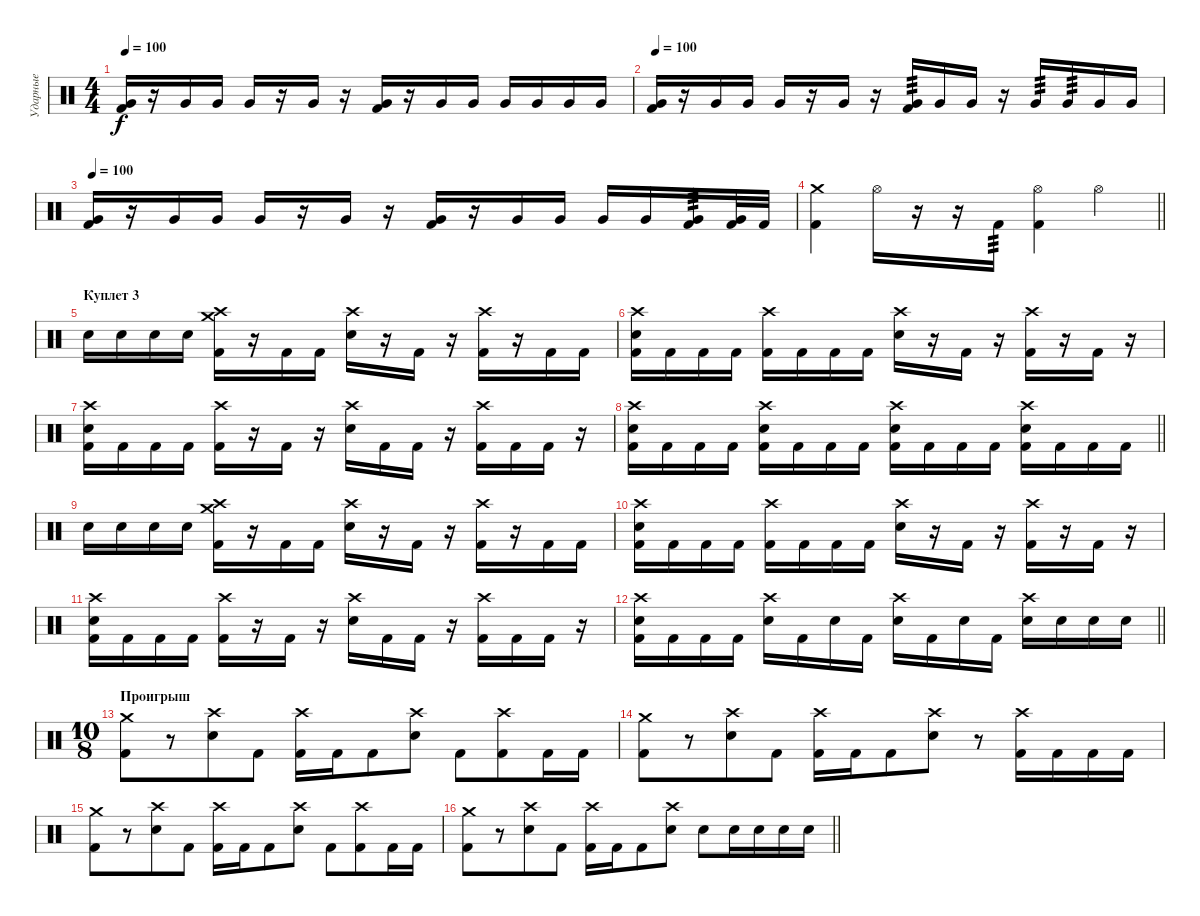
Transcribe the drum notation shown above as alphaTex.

\track ("Ударные" "Ударные") {instrument percussion}
\staff {score}
\articulation defaults
\ts (4 4)
\tempo 100
\clef neutral
\ks c
("Very Low Tom (hit)" "Kick (hit) 2").16{dy f volume 16} r.16 "Very Low Tom (hit)".16 "Very Low Tom (hit)".16 "Very Low Tom (hit)".16 r.16 "Very Low Tom (hit)".16 r.16 ("Very Low Tom (hit)" "Kick (hit) 2").16 r.16 "Very Low Tom (hit)".16 "Very Low Tom (hit)".16 "Very Low Tom (hit)".16 "Very Low Tom (hit)".16 "Very Low Tom (hit)".16 "Very Low Tom (hit)".16 |
\tempo 100
("Very Low Tom (hit)" "Kick (hit) 2").16{volume 16} r.16 "Very Low Tom (hit)".16 "Very Low Tom (hit)".16 "Very Low Tom (hit)".16 r.16 "Very Low Tom (hit)".16 r.16 ("Very Low Tom (hit)" "Kick (hit) 2").16{tp 3} "Very Low Tom (hit)".16 "Very Low Tom (hit)".16 r.16 "Very Low Tom (hit)".16{tp 3} "Very Low Tom (hit)".16{tp 3} "Very Low Tom (hit)".16 "Very Low Tom (hit)".16 |
\tempo 100
("Very Low Tom (hit)" "Kick (hit) 2").16{volume 16} r.16 "Very Low Tom (hit)".16 "Very Low Tom (hit)".16 "Very Low Tom (hit)".16 r.16 "Very Low Tom (hit)".16 r.16 ("Very Low Tom (hit)" "Kick (hit) 2").16 r.16 "Very Low Tom (hit)".16 "Very Low Tom (hit)".16 "Very Low Tom (hit)".16 "Very Low Tom (hit)".16 ("Very Low Tom (hit)" "Kick (hit) 2").16{tp 3} ("Very Low Tom (hit)" "Kick (hit) 2").32 "Kick (hit) 2".32 |
\barLineRight lightlight
("Crash medium (hit)" "Kick (hit) 2").4 "Hi-Hat (open)".16 r.16 r.16 "Kick (hit) 2".16{tp 3} ("Hi-Hat (open)" "Kick (hit) 2").4 "Hi-Hat (open)".4 |
\section ("" "Куплет 3")
"Electric Snare (hit)".16 "Electric Snare (hit)".16 "Electric Snare (hit)".16 "Electric Snare (hit)".16 ("Crash medium (hit)" "Crash high (hit)" "Kick (hit) 2").16 r.16 "Kick (hit) 2".16 "Kick (hit) 2".16 ("Crash high (hit)" "Electric Snare (hit)").16 r.16 "Kick (hit) 2".16 r.16 ("Crash high (hit)" "Kick (hit) 2").16 r.16 "Kick (hit) 2".16 "Kick (hit) 2".16 |
("Crash high (hit)" "Electric Snare (hit)" "Kick (hit) 2").16 "Kick (hit) 2".16 "Kick (hit) 2".16 "Kick (hit) 2".16 ("Crash high (hit)" "Kick (hit) 2").16 "Kick (hit) 2".16 "Kick (hit) 2".16 "Kick (hit) 2".16 ("Crash high (hit)" "Electric Snare (hit)").16 r.16 "Kick (hit) 2".16 r.16 ("Crash high (hit)" "Kick (hit) 2").16 r.16 "Kick (hit) 2".16 r.16 |
("Crash high (hit)" "Electric Snare (hit)" "Kick (hit) 2").16 "Kick (hit) 2".16 "Kick (hit) 2".16 "Kick (hit) 2".16 ("Crash high (hit)" "Kick (hit) 2").16 r.16 "Kick (hit) 2".16 r.16 ("Crash high (hit)" "Electric Snare (hit)").16 "Kick (hit) 2".16 "Kick (hit) 2".16 r.16 ("Crash high (hit)" "Kick (hit) 2").16 "Kick (hit) 2".16 "Kick (hit) 2".16 r.16 |
\barLineRight lightlight
("Crash high (hit)" "Electric Snare (hit)" "Kick (hit) 2").16 "Kick (hit) 2".16 "Kick (hit) 2".16 "Kick (hit) 2".16 ("Crash high (hit)" "Electric Snare (hit)" "Kick (hit) 2").16 "Kick (hit) 2".16 "Kick (hit) 2".16 "Kick (hit) 2".16 ("Crash high (hit)" "Electric Snare (hit)" "Kick (hit) 2").16 "Kick (hit) 2".16 "Kick (hit) 2".16 "Kick (hit) 2".16 ("Crash high (hit)" "Electric Snare (hit)" "Kick (hit) 2").16 "Kick (hit) 2".16 "Kick (hit) 2".16 "Kick (hit) 2".16 |
"Electric Snare (hit)".16 "Electric Snare (hit)".16 "Electric Snare (hit)".16 "Electric Snare (hit)".16 ("Crash medium (hit)" "Crash high (hit)" "Kick (hit) 2").16 r.16 "Kick (hit) 2".16 "Kick (hit) 2".16 ("Crash high (hit)" "Electric Snare (hit)").16 r.16 "Kick (hit) 2".16 r.16 ("Crash high (hit)" "Kick (hit) 2").16 r.16 "Kick (hit) 2".16 "Kick (hit) 2".16 |
("Crash high (hit)" "Electric Snare (hit)" "Kick (hit) 2").16 "Kick (hit) 2".16 "Kick (hit) 2".16 "Kick (hit) 2".16 ("Crash high (hit)" "Kick (hit) 2").16 "Kick (hit) 2".16 "Kick (hit) 2".16 "Kick (hit) 2".16 ("Crash high (hit)" "Electric Snare (hit)").16 r.16 "Kick (hit) 2".16 r.16 ("Crash high (hit)" "Kick (hit) 2").16 r.16 "Kick (hit) 2".16 r.16 |
("Crash high (hit)" "Electric Snare (hit)" "Kick (hit) 2").16 "Kick (hit) 2".16 "Kick (hit) 2".16 "Kick (hit) 2".16 ("Crash high (hit)" "Kick (hit) 2").16 r.16 "Kick (hit) 2".16 r.16 ("Crash high (hit)" "Electric Snare (hit)").16 "Kick (hit) 2".16 "Kick (hit) 2".16 r.16 ("Crash high (hit)" "Kick (hit) 2").16 "Kick (hit) 2".16 "Kick (hit) 2".16 r.16 |
\barLineRight lightlight
("Crash high (hit)" "Electric Snare (hit)" "Kick (hit) 2").16 "Kick (hit) 2".16 "Kick (hit) 2".16 "Kick (hit) 2".16 ("Crash high (hit)" "Electric Snare (hit)").16 "Kick (hit) 2".16 "Electric Snare (hit)".16 "Kick (hit) 2".16 ("Crash high (hit)" "Electric Snare (hit)").16 "Kick (hit) 2".16 "Electric Snare (hit)".16 "Kick (hit) 2".16 ("Crash high (hit)" "Electric Snare (hit)").16 "Electric Snare (hit)".16 "Electric Snare (hit)".16 "Electric Snare (hit)".16 |
\ts (10 8)
\section ("" "Проигрыш")
("Crash medium (hit)" "Kick (hit) 2").8 r.8 ("Crash high (hit)" "Electric Snare (hit)").8 "Kick (hit) 2".8 ("Crash high (hit)" "Kick (hit) 2").16 "Kick (hit) 2".16 "Kick (hit) 2".8 ("Crash high (hit)" "Electric Snare (hit)").8 "Kick (hit) 2".8 ("Crash high (hit)" "Kick (hit) 2").8 "Kick (hit) 2".16 "Kick (hit) 2".16 |
("Crash medium (hit)" "Kick (hit) 2").8 r.8 ("Crash high (hit)" "Electric Snare (hit)").8 "Kick (hit) 2".8 ("Crash high (hit)" "Kick (hit) 2").16 "Kick (hit) 2".16 "Kick (hit) 2".8 ("Crash high (hit)" "Electric Snare (hit)").8 r.8 ("Crash high (hit)" "Kick (hit) 2").16 "Kick (hit) 2".16 "Kick (hit) 2".16 "Kick (hit) 2".16 |
("Crash medium (hit)" "Kick (hit) 2").8 r.8 ("Crash high (hit)" "Electric Snare (hit)").8 "Kick (hit) 2".8 ("Crash high (hit)" "Kick (hit) 2").16 "Kick (hit) 2".16 "Kick (hit) 2".8 ("Crash high (hit)" "Electric Snare (hit)").8 "Kick (hit) 2".8 ("Crash high (hit)" "Kick (hit) 2").8 "Kick (hit) 2".16 "Kick (hit) 2".16 |
\barLineRight lightlight
("Crash medium (hit)" "Kick (hit) 2").8 r.8 ("Crash high (hit)" "Electric Snare (hit)").8 "Kick (hit) 2".8 ("Crash high (hit)" "Kick (hit) 2").16 "Kick (hit) 2".16 "Kick (hit) 2".8 ("Crash high (hit)" "Electric Snare (hit)").8 "Electric Snare (hit)".8 "Electric Snare (hit)".16 "Electric Snare (hit)".16 "Electric Snare (hit)".16 "Electric Snare (hit)".16
